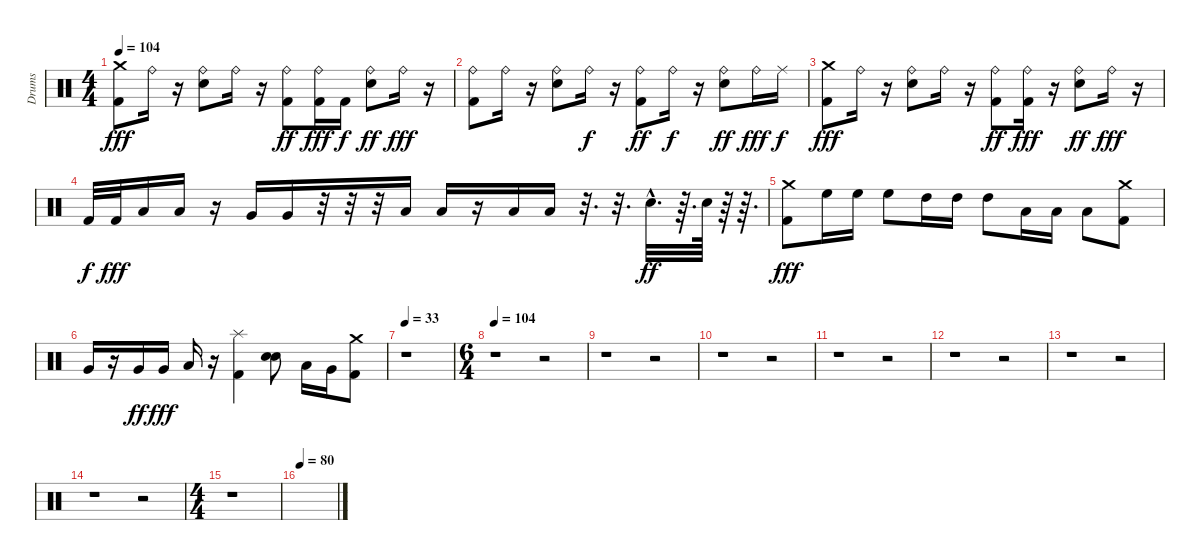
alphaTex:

\track ("Drums" "Drums") {instrument percussion}
\staff {score}
\articulation defaults
\ts (4 4)
\tempo 104
\clef neutral
\ks c
("Crash medium (hit)" "Kick (hit) 2").8{dy fff} "Ride (bell)".16 r.16 ("Electric Snare (hit)" "Ride (bell)").8 "Ride (bell)".16 r.16 ("Kick (hit) 2" "Ride (bell)").8{dy ff} ("Kick (hit) 2" "Ride (bell)").16{dy fff} "Kick (hit) 2".16{dy f} ("Electric Snare (hit)" "Ride (bell)").8{dy ff} "Ride (bell)".16{dy fff} r.16 |
("Kick (hit) 2" "Ride (bell)").8 "Ride (bell)".16 r.16 ("Electric Snare (hit)" "Ride (bell)").8 "Ride (bell)".16{dy f} r.16 ("Kick (hit) 2" "Ride (bell)").8{dy ff} "Ride (bell)".16{dy f} r.16 ("Electric Snare (hit)" "Ride (bell)").8{dy ff} "Ride (bell)".16{dy fff} "Ride (middle)".16{dy f} |
("Crash medium (hit)" "Kick (hit) 2").8{dy fff} "Ride (bell)".16 r.16 ("Electric Snare (hit)" "Ride (bell)").8 "Ride (bell)".16 r.16 ("Kick (hit) 2" "Ride (bell)").8{dy ff} ("Kick (hit) 2" "Ride (bell)").16{dy fff} r.16 ("Electric Snare (hit)" "Ride (bell)").8{dy ff} "Ride (bell)".16{dy fff} r.16 |
"Kick (hit) 2".32{dy f} "Kick (hit) 2".32{dy fff} "Low Tom (hit)".16 "Low Tom (hit)".16 r.16 "Very Low Tom (hit)".16 "Very Low Tom (hit)".16 r.32 r.32 r.32 "Low Tom (hit)".16 "Low Tom (hit)".16 r.16 "Low Floor Tom (hit)".16 "Low Floor Tom (hit)".16 r.32{d} r.32{d} "Electric Snare (hit)"{hac}.32{d dy ff} r.64{d} "Electric Snare (hit)".64 r.64 r.64{d} |
("Crash medium (hit)" "Kick (hit) 2").8{dy fff} "High Floor Tom (hit)".16 "High Floor Tom (hit)".16 "High Floor Tom (hit)".8 "High Tom (hit)".16 "High Tom (hit)".16 "High Tom (hit)".8 "Low Tom (hit)".16 "Low Tom (hit)".16 "Low Tom (hit)".8 ("Kick (hit) 2" "Crash medium (hit)").8 |
"Very Low Tom (hit)".16 r.16 "Very Low Tom (hit)".16{dy ff} "Very Low Tom (hit)".16{dy fff} "Low Floor Tom (hit)".16 r.16 ("Kick (hit) 2" "Splash (hit)").4 ("Electric Snare (hit)" "Electric Snare (hit)").8 "Low Tom (hit)".16 "Very Low Tom (hit)".16 ("Kick (hit) 2" "Crash medium (hit)").8 |
\tempo 33
r.1 |
\ts (6 4)
\tempo 104
r.1 r.2 |
r.1 r.2 |
r.1 r.2 |
r.1 r.2 |
r.1 r.2 |
r.1 r.2 |
r.1 r.2 |
\ts (4 4)
r.1 |
\tempo 80
